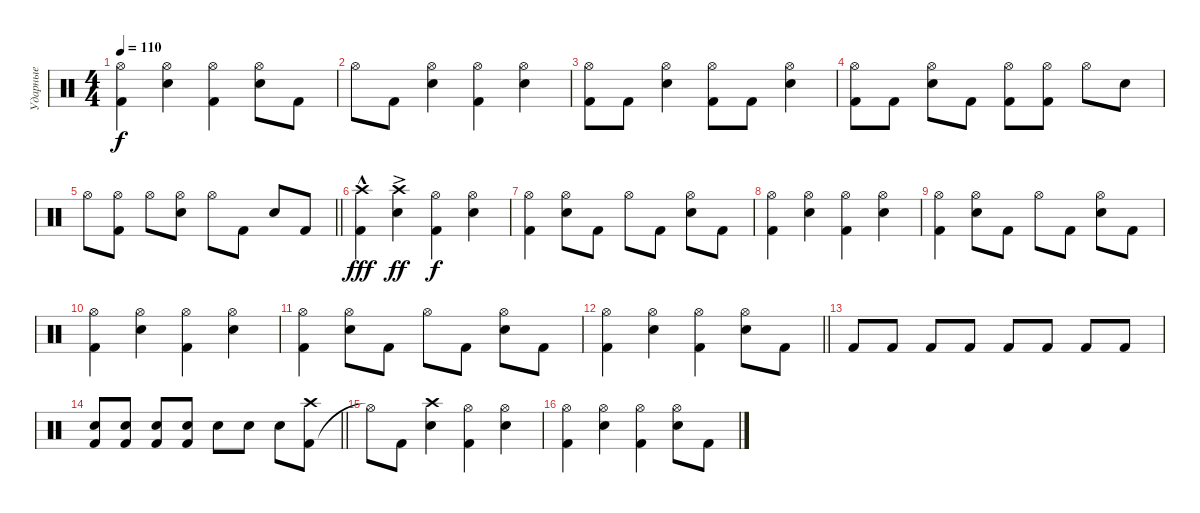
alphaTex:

\track ("Ударные" "Ударные") {instrument percussion}
\staff {score}
\articulation defaults
\ts (4 4)
\tempo 110
\clef neutral
\ks c
("Kick (hit) 2" "Hi-Hat (open)").4{dy f} ("Snare (hit) 2" "Hi-Hat (open)").4 ("Kick (hit) 2" "Hi-Hat (open)").4 ("Snare (hit) 2" "Hi-Hat (open)").8 "Kick (hit) 2".8 |
"Hi-Hat (open)".8 "Kick (hit) 2".8 ("Snare (hit) 2" "Hi-Hat (open)").4 ("Kick (hit) 2" "Hi-Hat (open)").4 ("Snare (hit) 2" "Hi-Hat (open)").4 |
("Kick (hit) 2" "Hi-Hat (open)").8 "Kick (hit) 2".8 ("Snare (hit) 2" "Hi-Hat (open)").4 ("Kick (hit) 2" "Hi-Hat (open)").8 "Kick (hit) 2".8 ("Snare (hit) 2" "Hi-Hat (open)").4 |
("Kick (hit) 2" "Hi-Hat (open)").8 "Kick (hit) 2".8 ("Snare (hit) 2" "Hi-Hat (open)").8 "Kick (hit) 2".8 ("Kick (hit) 2" "Hi-Hat (open)").8 ("Kick (hit) 2" "Hi-Hat (open)").8 "Hi-Hat (open)".8 "Snare (hit) 2".8 |
\barLineRight lightlight "Hi-Hat (open)".8
("Kick (hit) 2" "Hi-Hat (open)").8 "Hi-Hat (open)".8 ("Snare (hit) 2" "Hi-Hat (open)").8 "Hi-Hat (open)".8 "Kick (hit) 2".8 "Snare (hit) 2".8 "Kick (hit) 2".8 |
("Kick (hit) 2" "Crash high (hit)"{hac}).4{dy fff} ("Snare (hit) 2" "Crash high (hit)"{ac}).4{dy ff} ("Kick (hit) 2" "Hi-Hat (open)").4{dy f} ("Snare (hit) 2" "Hi-Hat (open)").4 |
("Kick (hit) 2" "Hi-Hat (open)").4 ("Snare (hit) 2" "Hi-Hat (open)").8 "Kick (hit) 2".8 "Hi-Hat (open)".8 "Kick (hit) 2".8 ("Snare (hit) 2" "Hi-Hat (open)").8 "Kick (hit) 2".8 |
("Kick (hit) 2" "Hi-Hat (open)").4 ("Snare (hit) 2" "Hi-Hat (open)").4 ("Kick (hit) 2" "Hi-Hat (open)").4 ("Snare (hit) 2" "Hi-Hat (open)").4 |
("Kick (hit) 2" "Hi-Hat (open)").4 ("Snare (hit) 2" "Hi-Hat (open)").8 "Kick (hit) 2".8 "Hi-Hat (open)".8 "Kick (hit) 2".8 ("Snare (hit) 2" "Hi-Hat (open)").8 "Kick (hit) 2".8 |
("Kick (hit) 2" "Hi-Hat (open)").4 ("Snare (hit) 2" "Hi-Hat (open)").4 ("Kick (hit) 2" "Hi-Hat (open)").4 ("Snare (hit) 2" "Hi-Hat (open)").4 |
("Kick (hit) 2" "Hi-Hat (open)").4 ("Snare (hit) 2" "Hi-Hat (open)").8 "Kick (hit) 2".8 "Hi-Hat (open)".8 "Kick (hit) 2".8 ("Snare (hit) 2" "Hi-Hat (open)").8 "Kick (hit) 2".8 |
\barLineRight lightlight
("Kick (hit) 2" "Hi-Hat (open)").4 ("Snare (hit) 2" "Hi-Hat (open)").4 ("Kick (hit) 2" "Hi-Hat (open)").4 ("Snare (hit) 2" "Hi-Hat (open)").8 "Kick (hit) 2".8 |
"Kick (hit) 2".8 "Kick (hit) 2".8 "Kick (hit) 2".8 "Kick (hit) 2".8 "Kick (hit) 2".8 "Kick (hit) 2".8 "Kick (hit) 2".8 "Kick (hit) 2".8 |
\barLineRight lightlight
("Kick (hit) 2" "Electric Snare (hit)").8 ("Kick (hit) 2" "Electric Snare (hit)").8 ("Kick (hit) 2" "Electric Snare (hit)").8 ("Kick (hit) 2" "Electric Snare (hit)").8 "Snare (hit) 2".8 "Snare (hit) 2".8 "Snare (hit) 2".8 ("Kick (hit) 2" "Crash high (hit)").8 |
"Hi-Hat (open)"{t}.8 "Kick (hit) 2".8 ("Snare (hit) 2" "Crash high (hit)").4 ("Kick (hit) 2" "Hi-Hat (open)").4 ("Snare (hit) 2" "Hi-Hat (open)").4 |
("Kick (hit) 2" "Hi-Hat (open)").4 ("Snare (hit) 2" "Hi-Hat (open)").4 ("Kick (hit) 2" "Hi-Hat (open)").4 ("Snare (hit) 2" "Hi-Hat (open)").8 "Kick (hit) 2".8
